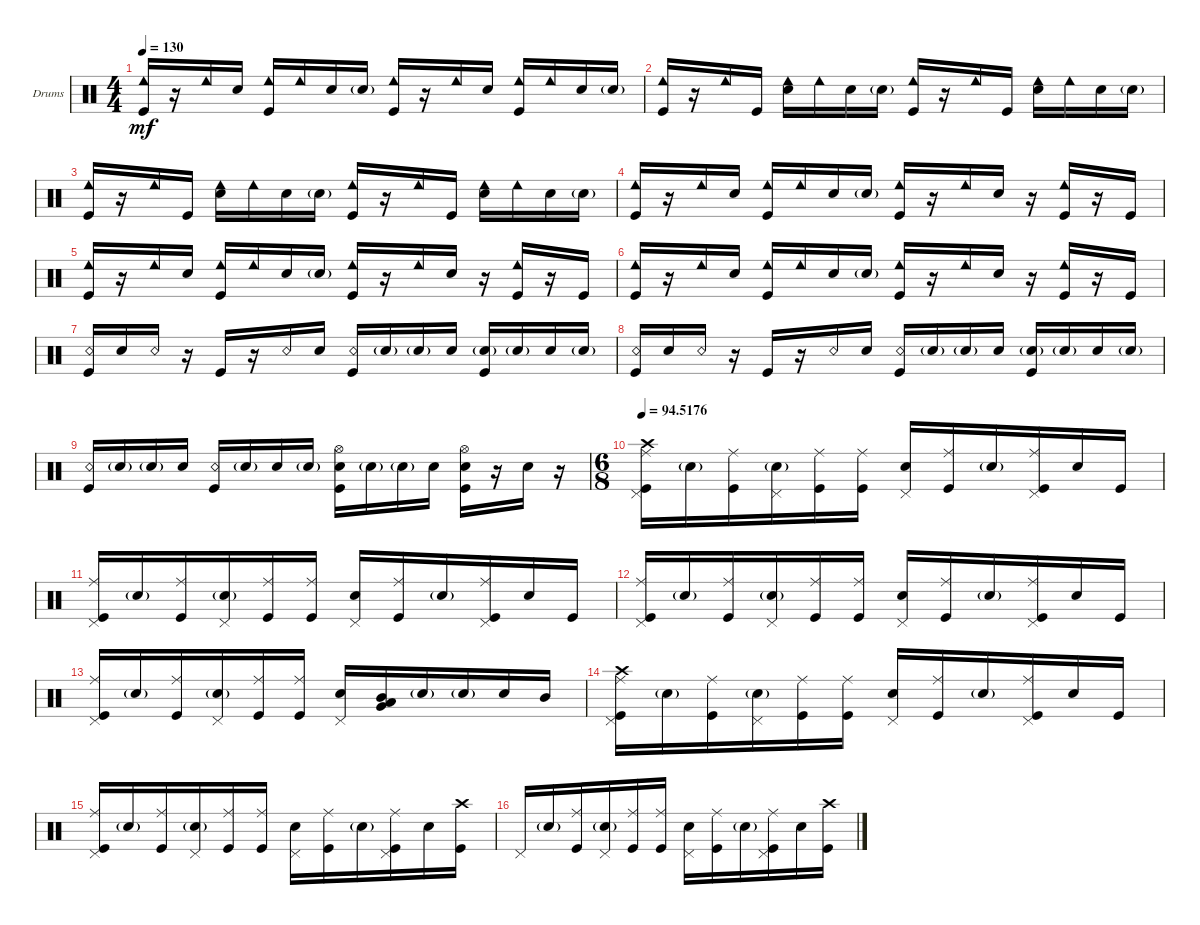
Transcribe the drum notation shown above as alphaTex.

\defaultSystemsLayout 4
\bracketExtendMode groupsimilarinstruments
\firstSystemTrackNameOrientation horizontal
\otherSystemsTrackNameOrientation horizontal
\track ("Godd" "Drums") {instrument percussion}
\staff {score}
\articulation defaults
\ts (4 4)
\tempo 130
\clef neutral
\scale
0.333333
\ks c
("Cowbell low (hit)" "Kick (hit)").16{dy mf} r.16 "Cowbell low (hit)".16 "Snare (hit) 2".16 ("Cowbell low (hit)" "Kick (hit)").16 "Cowbell low (hit)".16 "Snare (hit) 2".16 "Snare (hit) 2"{g}.16 ("Cowbell low (hit)" "Kick (hit)").16 r.16 "Cowbell low (hit)".16 "Snare (hit) 2".16 ("Cowbell low (hit)" "Kick (hit)").16 "Cowbell low (hit)".16 "Snare (hit) 2".16 "Snare (hit) 2"{g}.16 |
\scale
0.333333 ("Cowbell low (hit)" "Kick (hit)").16 r.16 "Cowbell low (hit)".16 "Kick (hit)".16 ("Cowbell low (hit)" "Snare (hit) 2").16 "Cowbell low (hit)".16 "Snare (hit) 2".16 "Snare (hit) 2"{g}.16 ("Cowbell low (hit)" "Kick (hit)").16 r.16 "Cowbell low (hit)".16 "Kick (hit)".16 ("Cowbell low (hit)" "Snare (hit) 2").16 "Cowbell low (hit)".16 "Snare (hit) 2".16 "Snare (hit) 2"{g}.16 |
\scale
0.333333 ("Cowbell low (hit)" "Kick (hit)").16 r.16 "Cowbell low (hit)".16 "Kick (hit)".16 ("Cowbell low (hit)" "Snare (hit) 2").16 "Cowbell low (hit)".16 "Snare (hit) 2".16 "Snare (hit) 2"{g}.16 ("Cowbell low (hit)" "Kick (hit)").16 r.16 "Cowbell low (hit)".16 "Kick (hit)".16 ("Cowbell low (hit)" "Snare (hit) 2").16 "Cowbell low (hit)".16 "Snare (hit) 2".16 "Snare (hit) 2"{g}.16 |
\scale
0.333333 ("Cowbell low (hit)" "Kick (hit)").16 r.16 "Cowbell low (hit)".16 "Snare (hit) 2".16 ("Cowbell low (hit)" "Kick (hit)").16 "Cowbell low (hit)".16 "Snare (hit) 2".16 "Snare (hit) 2"{g}.16 ("Cowbell low (hit)" "Kick (hit)").16 r.16 "Cowbell low (hit)".16 "Snare (hit) 2".16 r.16 ("Cowbell low (hit)" "Kick (hit)").16 r.16 "Kick (hit)".16 |
\scale
0.333333 ("Cowbell low (hit)" "Kick (hit)").16 r.16 "Cowbell low (hit)".16 "Snare (hit) 2".16 ("Cowbell low (hit)" "Kick (hit)").16 "Cowbell low (hit)".16 "Snare (hit) 2".16 "Snare (hit) 2"{g}.16 ("Cowbell low (hit)" "Kick (hit)").16 r.16 "Cowbell low (hit)".16 "Snare (hit) 2".16 r.16 ("Cowbell low (hit)" "Kick (hit)").16 r.16 "Kick (hit)".16 |
\scale
0.333333 ("Cowbell low (hit)" "Kick (hit)").16 r.16 "Cowbell low (hit)".16 "Snare (hit) 2".16 ("Cowbell low (hit)" "Kick (hit)").16 "Cowbell low (hit)".16 "Snare (hit) 2".16 "Snare (hit) 2"{g}.16 ("Cowbell low (hit)" "Kick (hit)").16 r.16 "Cowbell low (hit)".16 "Snare (hit) 2".16 r.16 ("Cowbell low (hit)" "Kick (hit)").16 r.16 "Kick (hit)".16 |
\scale
0.333333 ("Kick (hit)" "Snare (rim shot)").16 "Snare (hit) 2".16 "Snare (rim shot)".16 r.16 "Kick (hit)".16 r.16 "Snare (rim shot)".16 "Snare (hit) 2".16 ("Snare (rim shot)" "Kick (hit)").16 "Snare (hit) 2"{g}.16 "Snare (hit) 2"{g}.16 "Snare (hit) 2".16 ("Snare (hit) 2"{g} "Kick (hit)").16 "Snare (hit) 2"{g}.16 "Snare (hit) 2".16 "Snare (hit) 2"{g}.16 |
\scale
0.263889 ("Kick (hit)" "Snare (rim shot)").16 "Snare (hit) 2".16 "Snare (rim shot)".16 r.16 "Kick (hit)".16 r.16 "Snare (rim shot)".16 "Snare (hit) 2".16 ("Snare (rim shot)" "Kick (hit)").16 "Snare (hit) 2"{g}.16 "Snare (hit) 2"{g}.16 "Snare (hit) 2".16 ("Snare (hit) 2"{g} "Kick (hit)").16 "Snare (hit) 2"{g}.16 "Snare (hit) 2".16 "Snare (hit) 2"{g}.16 |
\scale
0.263889 ("Kick (hit)" "Snare (rim shot)").16 "Snare (hit) 2"{g}.16 "Snare (hit) 2"{g}.16 "Snare (hit) 2".16 ("Kick (hit)" "Snare (rim shot)").16 "Snare (hit) 2"{g}.16 "Snare (hit) 2".16 "Snare (hit) 2"{g}.16 ("Kick (hit)" "Hi-Hat (open)" "Snare (hit) 2").16 "Snare (hit) 2"{g}.16 "Snare (hit) 2"{g}.16 "Snare (hit) 2".16 ("Kick (hit)" "Hi-Hat (open)" "Snare (hit) 2").16 r.16 "Snare (hit) 2".16 r.16 |
\ts (6 8)
\tempo
94.5176
\scale
0.472222 ("Kick (hit)" "Ride (middle)" "Pedal Hi-Hat (hit)" "Crash high (hit)").16 "Snare (hit) 2"{g}.16 ("Kick (hit)" "Ride (middle)").16 ("Snare (hit) 2"{g} "Pedal Hi-Hat (hit)").16 ("Kick (hit)" "Ride (middle)").16 ("Kick (hit)" "Ride (middle)").16 ("Snare (hit) 2" "Pedal Hi-Hat (hit)").16 ("Kick (hit)" "Ride (middle)").16 "Snare (hit) 2"{g}.16 ("Kick (hit)" "Ride (middle)" "Pedal Hi-Hat (hit)").16 "Snare (hit) 2".16 "Kick (hit)".16 |
\scale
0.333333 ("Kick (hit)" "Ride (middle)" "Pedal Hi-Hat (hit)").16 "Snare (hit) 2"{g}.16 ("Kick (hit)" "Ride (middle)").16 ("Snare (hit) 2"{g} "Pedal Hi-Hat (hit)").16 ("Kick (hit)" "Ride (middle)").16 ("Kick (hit)" "Ride (middle)").16 ("Snare (hit) 2" "Pedal Hi-Hat (hit)").16 ("Kick (hit)" "Ride (middle)").16 "Snare (hit) 2"{g}.16 ("Kick (hit)" "Ride (middle)" "Pedal Hi-Hat (hit)").16 "Snare (hit) 2".16 "Kick (hit)".16 |
\scale
0.333333 ("Kick (hit)" "Ride (middle)" "Pedal Hi-Hat (hit)").16 "Snare (hit) 2"{g}.16 ("Kick (hit)" "Ride (middle)").16 ("Snare (hit) 2"{g} "Pedal Hi-Hat (hit)").16 ("Kick (hit)" "Ride (middle)").16 ("Kick (hit)" "Ride (middle)").16 ("Snare (hit) 2" "Pedal Hi-Hat (hit)").16 ("Kick (hit)" "Ride (middle)").16 "Snare (hit) 2"{g}.16 ("Kick (hit)" "Ride (middle)" "Pedal Hi-Hat (hit)").16 "Snare (hit) 2".16 "Kick (hit)".16 |
\scale
0.333333 ("Kick (hit)" "Ride (middle)" "Pedal Hi-Hat (hit)").16 "Snare (hit) 2"{g}.16 ("Kick (hit)" "Ride (middle)").16 ("Snare (hit) 2"{g} "Pedal Hi-Hat (hit)").16 ("Kick (hit)" "Ride (middle)").16 ("Kick (hit)" "Ride (middle)").16 ("Snare (hit) 2" "Pedal Hi-Hat (hit)").16 ("Low Tom (hit)" "Mid Tom (hit)" "Very Low Tom (hit)").16 "Snare (hit) 2"{g}.16 "Snare (hit) 2"{g}.16 "Snare (hit) 2".16 "Mid Tom (hit)".16 |
\scale
0.333333 ("Kick (hit)" "Ride (middle)" "Pedal Hi-Hat (hit)" "Crash high (hit)").16 "Snare (hit) 2"{g}.16 ("Kick (hit)" "Ride (middle)").16 ("Snare (hit) 2"{g} "Pedal Hi-Hat (hit)").16 ("Kick (hit)" "Ride (middle)").16 ("Kick (hit)" "Ride (middle)").16 ("Snare (hit) 2" "Pedal Hi-Hat (hit)").16 ("Kick (hit)" "Ride (middle)").16 "Snare (hit) 2"{g}.16 ("Kick (hit)" "Ride (middle)" "Pedal Hi-Hat (hit)").16 "Snare (hit) 2".16 "Kick (hit)".16 |
\scale
0.333333 ("Kick (hit)" "Ride (middle)" "Pedal Hi-Hat (hit)").16 "Snare (hit) 2"{g}.16 ("Kick (hit)" "Ride (middle)").16 ("Snare (hit) 2"{g} "Pedal Hi-Hat (hit)").16 ("Kick (hit)" "Ride (middle)").16 ("Kick (hit)" "Ride (middle)").16 ("Snare (hit) 2" "Pedal Hi-Hat (hit)").16 ("Kick (hit)" "Ride (middle)").16 "Snare (hit) 2"{g}.16 ("Kick (hit)" "Ride (middle)" "Pedal Hi-Hat (hit)").16 "Snare (hit) 2".16 ("Kick (hit)" "Crash high (hit)").16 |
\scale
0.333333 "Pedal Hi-Hat (hit)".16 "Snare (hit) 2"{g}.16 ("Kick (hit)" "Ride (middle)").16 ("Snare (hit) 2"{g} "Pedal Hi-Hat (hit)").16 ("Kick (hit)" "Ride (middle)").16 ("Kick (hit)" "Ride (middle)").16 ("Snare (hit) 2" "Pedal Hi-Hat (hit)").16 ("Kick (hit)" "Ride (middle)").16 "Snare (hit) 2"{g}.16 ("Kick (hit)" "Ride (middle)" "Pedal Hi-Hat (hit)").16 "Snare (hit) 2".16 ("Kick (hit)" "Crash high (hit)").16
